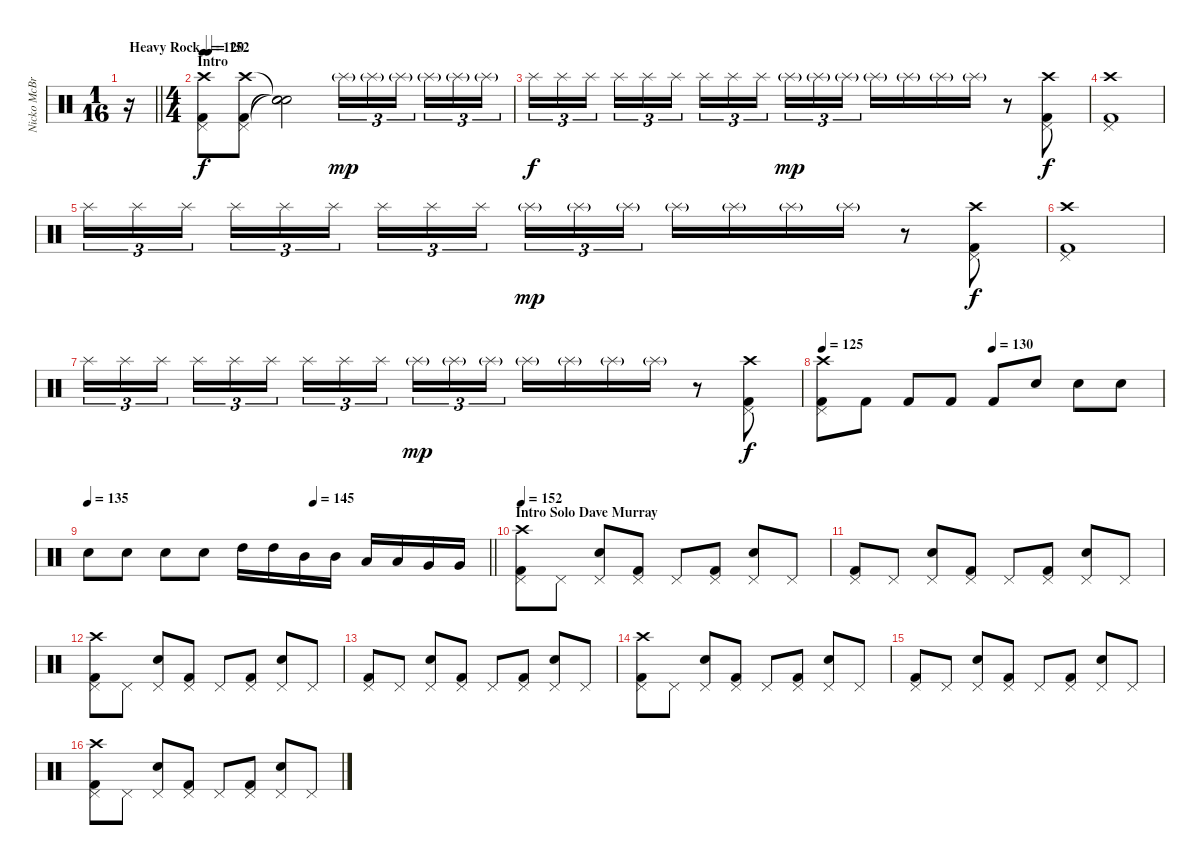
\track ("Nicko McBrain" "Nicko McBr") {instrument percussion}
\staff {score}
\articulation defaults
\ts (1 16)
\tempo (152 "Heavy Rock")
\clef neutral
\barLineRight lightlight
\ks c
r.16{dy f} |
\ts (4 4)
\section ("" "Intro")
\tempo 120
("Kick (hit) 2" "Pedal Hi-Hat (hit)" "Crash high (hit)").8 ("Kick (hit) 2" "Pedal Hi-Hat (hit)" "Crash high (hit)").8 ("Snare (hit)"{t} "Snare (hit)"{t} "Snare (hit)"{t}).2 "Splash (hit)"{g}.16{tu (3 2) dy mp} "Splash (hit)"{g}.16{tu (3 2)} "Splash (hit)"{g}.16{tu (3 2) beam splitsecondary} "Splash (hit)"{g}.16{tu (3 2)} "Splash (hit)"{g}.16{tu (3 2)} "Splash (hit)"{g}.16{tu (3 2)} |
"Splash (hit)".16{tu (3 2) dy f} "Splash (hit)".16{tu (3 2)} "Splash (hit)".16{tu (3 2) beam splitsecondary} "Splash (hit)".16{tu (3 2)} "Splash (hit)".16{tu (3 2)} "Splash (hit)".16{tu (3 2)} "Splash (hit)".16{tu (3 2)} "Splash (hit)".16{tu (3 2)} "Splash (hit)".16{tu (3 2) beam splitsecondary} "Splash (hit)"{g}.16{tu (3 2) dy mp} "Splash (hit)"{g}.16{tu (3 2)} "Splash (hit)"{g}.16{tu (3 2)} "Splash (hit)"{g}.16 "Splash (hit)"{g}.16 "Splash (hit)"{g}.16 "Splash (hit)"{g}.16 r.8 ("Kick (hit) 2" "Pedal Hi-Hat (hit)" "Crash high (hit)").8{dy f} |
("Kick (hit) 2" "Pedal Hi-Hat (hit)" "Crash high (hit)").1 |
"Splash (hit)".16{tu (3 2)} "Splash (hit)".16{tu (3 2)} "Splash (hit)".16{tu (3 2) beam splitsecondary} "Splash (hit)".16{tu (3 2)} "Splash (hit)".16{tu (3 2)} "Splash (hit)".16{tu (3 2)} "Splash (hit)".16{tu (3 2)} "Splash (hit)".16{tu (3 2)} "Splash (hit)".16{tu (3 2) beam splitsecondary} "Splash (hit)"{g}.16{tu (3 2) dy mp} "Splash (hit)"{g}.16{tu (3 2)} "Splash (hit)"{g}.16{tu (3 2)} "Splash (hit)"{g}.16 "Splash (hit)"{g}.16 "Splash (hit)"{g}.16 "Splash (hit)"{g}.16 r.8 ("Kick (hit) 2" "Pedal Hi-Hat (hit)" "Crash high (hit)").8{dy f} |
("Kick (hit) 2" "Pedal Hi-Hat (hit)" "Crash high (hit)").1 |
"Splash (hit)".16{tu (3 2)} "Splash (hit)".16{tu (3 2)} "Splash (hit)".16{tu (3 2) beam splitsecondary} "Splash (hit)".16{tu (3 2)} "Splash (hit)".16{tu (3 2)} "Splash (hit)".16{tu (3 2)} "Splash (hit)".16{tu (3 2)} "Splash (hit)".16{tu (3 2)} "Splash (hit)".16{tu (3 2) beam splitsecondary} "Splash (hit)"{g}.16{tu (3 2) dy mp} "Splash (hit)"{g}.16{tu (3 2)} "Splash (hit)"{g}.16{tu (3 2)} "Splash (hit)"{g}.16 "Splash (hit)"{g}.16 "Splash (hit)"{g}.16 "Splash (hit)"{g}.16 r.8 ("Kick (hit) 2" "Pedal Hi-Hat (hit)" "Crash high (hit)").8{dy f} |
\tempo 125
\tempo (130 0.5)
("Kick (hit) 2" "Pedal Hi-Hat (hit)" "Crash high (hit)").8 "Kick (hit) 2".8 "Kick (hit) 2".8 "Kick (hit) 2".8 "Kick (hit) 2".8 "Snare (hit) 2".8 "Snare (hit) 2".8 "Snare (hit) 2".8 |
\tempo 135
\tempo (145 0.5625)
\barLineRight lightlight "Snare (hit) 2".8 "Snare (hit) 2".8 "Snare (hit) 2".8 "Snare (hit) 2".8 "High Tom (hit)".16 "High Tom (hit)".16 "Mid Tom (hit)".16 "Mid Tom (hit)".16 "Low Tom (hit)".16 "Low Tom (hit)".16 "Very Low Tom (hit)".16 "Very Low Tom (hit)".16
|
\section ("" "Intro Solo Dave Murray")
\tempo 152
("Kick (hit) 2" "Pedal Hi-Hat (hit)" "Crash high (hit)").8 "Pedal Hi-Hat (hit)".8 ("Snare (hit) 2" "Pedal Hi-Hat (hit)").8 ("Kick (hit) 2" "Pedal Hi-Hat (hit)").8 "Pedal Hi-Hat (hit)".8 ("Kick (hit) 2" "Pedal Hi-Hat (hit)").8 ("Snare (hit) 2" "Pedal Hi-Hat (hit)").8 "Pedal Hi-Hat (hit)".8 |
("Kick (hit) 2" "Pedal Hi-Hat (hit)").8 "Pedal Hi-Hat (hit)".8 ("Snare (hit) 2" "Pedal Hi-Hat (hit)").8 ("Kick (hit) 2" "Pedal Hi-Hat (hit)").8 "Pedal Hi-Hat (hit)".8 ("Kick (hit) 2" "Pedal Hi-Hat (hit)").8 ("Snare (hit) 2" "Pedal Hi-Hat (hit)").8 "Pedal Hi-Hat (hit)".8 |
("Kick (hit) 2" "Pedal Hi-Hat (hit)" "Crash high (hit)").8 "Pedal Hi-Hat (hit)".8 ("Snare (hit) 2" "Pedal Hi-Hat (hit)").8 ("Kick (hit) 2" "Pedal Hi-Hat (hit)").8 "Pedal Hi-Hat (hit)".8 ("Kick (hit) 2" "Pedal Hi-Hat (hit)").8 ("Snare (hit) 2" "Pedal Hi-Hat (hit)").8 "Pedal Hi-Hat (hit)".8 |
("Kick (hit) 2" "Pedal Hi-Hat (hit)").8 "Pedal Hi-Hat (hit)".8 ("Snare (hit) 2" "Pedal Hi-Hat (hit)").8 ("Kick (hit) 2" "Pedal Hi-Hat (hit)").8 "Pedal Hi-Hat (hit)".8 ("Kick (hit) 2" "Pedal Hi-Hat (hit)").8 ("Snare (hit) 2" "Pedal Hi-Hat (hit)").8 "Pedal Hi-Hat (hit)".8 |
("Kick (hit) 2" "Pedal Hi-Hat (hit)" "Crash high (hit)").8 "Pedal Hi-Hat (hit)".8 ("Snare (hit) 2" "Pedal Hi-Hat (hit)").8 ("Kick (hit) 2" "Pedal Hi-Hat (hit)").8 "Pedal Hi-Hat (hit)".8 ("Kick (hit) 2" "Pedal Hi-Hat (hit)").8 ("Snare (hit) 2" "Pedal Hi-Hat (hit)").8 "Pedal Hi-Hat (hit)".8 |
("Kick (hit) 2" "Pedal Hi-Hat (hit)").8 "Pedal Hi-Hat (hit)".8 ("Snare (hit) 2" "Pedal Hi-Hat (hit)").8 ("Kick (hit) 2" "Pedal Hi-Hat (hit)").8 "Pedal Hi-Hat (hit)".8 ("Kick (hit) 2" "Pedal Hi-Hat (hit)").8 ("Snare (hit) 2" "Pedal Hi-Hat (hit)").8 "Pedal Hi-Hat (hit)".8 |
("Kick (hit) 2" "Pedal Hi-Hat (hit)" "Crash high (hit)").8 "Pedal Hi-Hat (hit)".8 ("Snare (hit) 2" "Pedal Hi-Hat (hit)").8 ("Kick (hit) 2" "Pedal Hi-Hat (hit)").8 "Pedal Hi-Hat (hit)".8 ("Kick (hit) 2" "Pedal Hi-Hat (hit)").8 ("Snare (hit) 2" "Pedal Hi-Hat (hit)").8 "Pedal Hi-Hat (hit)".8
